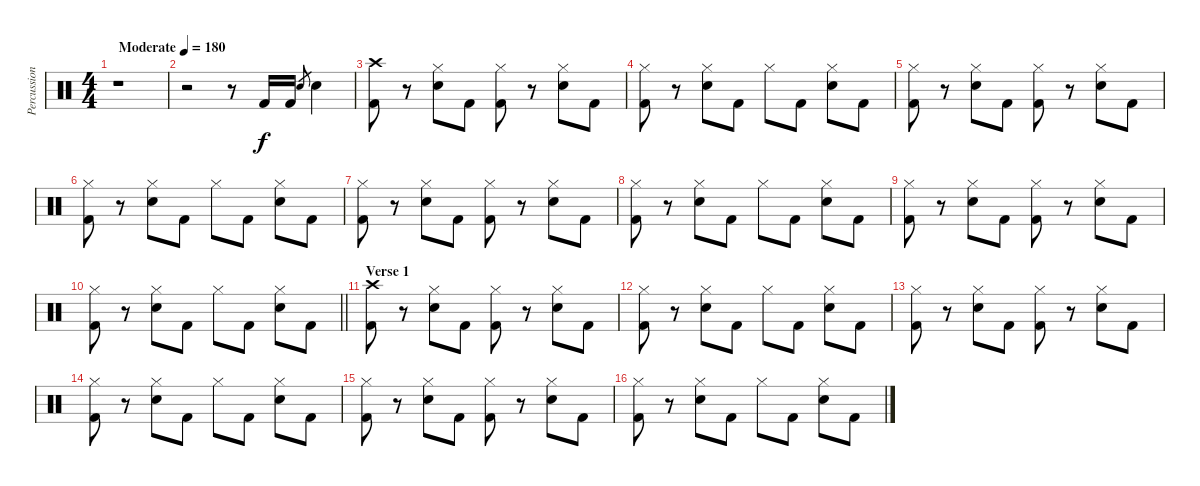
\track ("Percussion" "Percussion") {instrument percussion}
\staff {score}
\articulation defaults
\ts (4 4)
\tempo (180 "Moderate")
\clef neutral
\ks c
r.1{dy f} |
r.2 r.8 "Kick (hit) 2".16 "Kick (hit) 2".16 "Snare (hit) 2".8{gr} "Snare (hit) 2".4 |
("Crash high (hit)" "Kick (hit) 2").8 r.8 ("Hi-Hat (closed)" "Snare (hit) 2").8 "Kick (hit) 2".8 ("Hi-Hat (closed)" "Kick (hit) 2").8 r.8 ("Hi-Hat (closed)" "Snare (hit) 2").8 "Kick (hit) 2".8 |
("Hi-Hat (closed)" "Kick (hit) 2").8 r.8 ("Hi-Hat (closed)" "Snare (hit) 2").8 "Kick (hit) 2".8 "Hi-Hat (closed)".8 "Kick (hit) 2".8 ("Hi-Hat (closed)" "Snare (hit) 2").8 "Kick (hit) 2".8 |
("Hi-Hat (closed)" "Kick (hit) 2").8 r.8 ("Hi-Hat (closed)" "Snare (hit) 2").8 "Kick (hit) 2".8 ("Hi-Hat (closed)" "Kick (hit) 2").8 r.8 ("Hi-Hat (closed)" "Snare (hit) 2").8 "Kick (hit) 2".8 |
("Hi-Hat (closed)" "Kick (hit) 2").8 r.8 ("Hi-Hat (closed)" "Snare (hit) 2").8 "Kick (hit) 2".8 "Hi-Hat (closed)".8 "Kick (hit) 2".8 ("Hi-Hat (closed)" "Snare (hit) 2").8 "Kick (hit) 2".8 |
("Hi-Hat (closed)" "Kick (hit) 2").8 r.8 ("Hi-Hat (closed)" "Snare (hit) 2").8 "Kick (hit) 2".8 ("Hi-Hat (closed)" "Kick (hit) 2").8 r.8 ("Hi-Hat (closed)" "Snare (hit) 2").8 "Kick (hit) 2".8 |
("Hi-Hat (closed)" "Kick (hit) 2").8 r.8 ("Hi-Hat (closed)" "Snare (hit) 2").8 "Kick (hit) 2".8 "Hi-Hat (closed)".8 "Kick (hit) 2".8 ("Hi-Hat (closed)" "Snare (hit) 2").8 "Kick (hit) 2".8 |
("Hi-Hat (closed)" "Kick (hit) 2").8 r.8 ("Hi-Hat (closed)" "Snare (hit) 2").8 "Kick (hit) 2".8 ("Hi-Hat (closed)" "Kick (hit) 2").8 r.8 ("Hi-Hat (closed)" "Snare (hit) 2").8 "Kick (hit) 2".8 |
\barLineRight lightlight
("Hi-Hat (closed)" "Kick (hit) 2").8 r.8 ("Hi-Hat (closed)" "Snare (hit) 2").8 "Kick (hit) 2".8 "Hi-Hat (closed)".8 "Kick (hit) 2".8 ("Hi-Hat (closed)" "Snare (hit) 2").8 "Kick (hit) 2".8 |
\section ("" "Verse 1")
("Crash high (hit)" "Kick (hit) 2").8 r.8 ("Hi-Hat (closed)" "Snare (hit) 2").8 "Kick (hit) 2".8 ("Hi-Hat (closed)" "Kick (hit) 2").8 r.8 ("Hi-Hat (closed)" "Snare (hit) 2").8 "Kick (hit) 2".8 |
("Hi-Hat (closed)" "Kick (hit) 2").8 r.8 ("Hi-Hat (closed)" "Snare (hit) 2").8 "Kick (hit) 2".8 "Hi-Hat (closed)".8 "Kick (hit) 2".8 ("Hi-Hat (closed)" "Snare (hit) 2").8 "Kick (hit) 2".8 |
("Hi-Hat (closed)" "Kick (hit) 2").8 r.8 ("Hi-Hat (closed)" "Snare (hit) 2").8 "Kick (hit) 2".8 ("Hi-Hat (closed)" "Kick (hit) 2").8 r.8 ("Hi-Hat (closed)" "Snare (hit) 2").8 "Kick (hit) 2".8 |
("Hi-Hat (closed)" "Kick (hit) 2").8 r.8 ("Hi-Hat (closed)" "Snare (hit) 2").8 "Kick (hit) 2".8 "Hi-Hat (closed)".8 "Kick (hit) 2".8 ("Hi-Hat (closed)" "Snare (hit) 2").8 "Kick (hit) 2".8 |
("Hi-Hat (closed)" "Kick (hit) 2").8 r.8 ("Hi-Hat (closed)" "Snare (hit) 2").8 "Kick (hit) 2".8 ("Hi-Hat (closed)" "Kick (hit) 2").8 r.8 ("Hi-Hat (closed)" "Snare (hit) 2").8 "Kick (hit) 2".8 |
("Hi-Hat (closed)" "Kick (hit) 2").8 r.8 ("Hi-Hat (closed)" "Snare (hit) 2").8 "Kick (hit) 2".8 "Hi-Hat (closed)".8 "Kick (hit) 2".8 ("Hi-Hat (closed)" "Snare (hit) 2").8 "Kick (hit) 2".8
